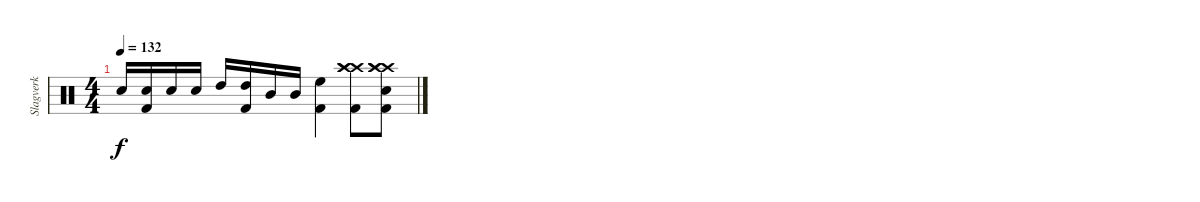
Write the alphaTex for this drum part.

\track ("Slagverk" "Slagverk") {instrument percussion}
\staff {score}
\articulation defaults
\ts (4 4)
\tempo 132
\clef neutral
\ks c "Snare (hit) 2".16{dy f volume 1}
("Kick (hit) 2" "Snare (hit) 2").16 "Snare (hit) 2".16 "Snare (hit) 2".16 "High Tom (hit)".16 ("Kick (hit) 2" "High Tom (hit)").16 "Mid Tom (hit)".16 "Mid Tom (hit)".16 ("Kick (hit) 2" "High Floor Tom (hit)").4 ("Kick (hit) 2" "Crash high (hit)" "Crash high (hit)" "Crash high (hit)").8 ("Kick (hit) 2" "Crash high (hit)" "Crash high (hit)" "Crash high (hit)" "Snare (hit) 2").8
